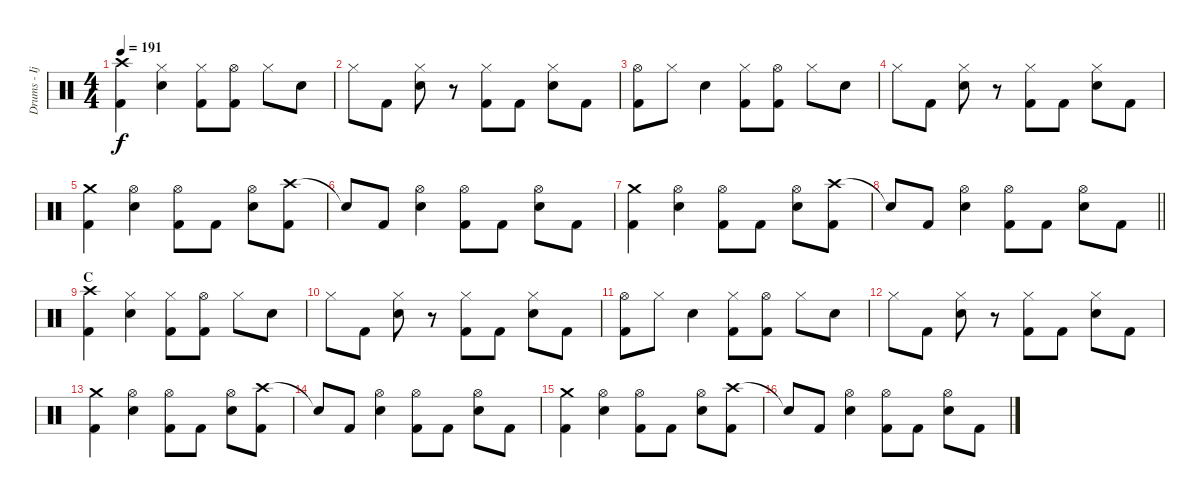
\track ("Drums - Ijichi" "Drums - Ij") {instrument percussion}
\staff
\articulation defaults
\ts (4 4)
\tempo 191
\clef neutral
\ks c
("Crash high (hit)" "Kick (hit) 2").4{dy f} ("Hi-Hat (closed)" "Electric Snare (hit)").4 ("Hi-Hat (closed)" "Kick (hit) 2").8 ("Hi-Hat (open)" "Kick (hit) 2").8 "Hi-Hat (closed)".8 "Electric Snare (hit)".8 |
"Hi-Hat (closed)".8 "Kick (hit) 2".8 ("Hi-Hat (closed)" "Electric Snare (hit)").8 r.8 ("Hi-Hat (closed)" "Kick (hit) 2").8 "Kick (hit) 2".8 ("Hi-Hat (closed)" "Electric Snare (hit)").8 "Kick (hit) 2".8 |
("Hi-Hat (open)" "Kick (hit) 2").8 "Hi-Hat (closed)".8 "Electric Snare (hit)".4 ("Hi-Hat (closed)" "Kick (hit) 2").8 ("Hi-Hat (open)" "Kick (hit) 2").8 "Hi-Hat (closed)".8 "Electric Snare (hit)".8 |
"Hi-Hat (closed)".8 "Kick (hit) 2".8 ("Hi-Hat (closed)" "Electric Snare (hit)").8 r.8 ("Hi-Hat (closed)" "Kick (hit) 2").8 "Kick (hit) 2".8 ("Hi-Hat (closed)" "Electric Snare (hit)").8 "Kick (hit) 2".8 |
("Crash medium (hit)" "Kick (hit) 2").4 ("Hi-Hat (open)" "Electric Snare (hit)").4 ("Hi-Hat (open)" "Kick (hit) 2").8 "Kick (hit) 2".8 ("Hi-Hat (open)" "Electric Snare (hit)").8 ("Crash high (hit)" "Kick (hit) 2").8 |
"Snare (hit)"{t}.8 "Kick (hit) 2".8 ("Hi-Hat (open)" "Electric Snare (hit)").4 ("Hi-Hat (open)" "Kick (hit) 2").8 "Kick (hit) 2".8 ("Hi-Hat (open)" "Electric Snare (hit)").8 "Kick (hit) 2".8 |
("Crash medium (hit)" "Kick (hit) 2").4 ("Hi-Hat (open)" "Electric Snare (hit)").4 ("Hi-Hat (open)" "Kick (hit) 2").8 "Kick (hit) 2".8 ("Hi-Hat (open)" "Electric Snare (hit)").8 ("Crash high (hit)" "Kick (hit) 2").8 |
\barLineRight lightlight "Snare (hit)"{t}.8 "Kick (hit) 2".8
("Hi-Hat (open)" "Electric Snare (hit)").4 ("Hi-Hat (open)" "Kick (hit) 2").8 "Kick (hit) 2".8 ("Hi-Hat (open)" "Electric Snare (hit)").8 "Kick (hit) 2".8 |
\section ("" "C")
("Crash high (hit)" "Kick (hit) 2").4 ("Hi-Hat (closed)" "Electric Snare (hit)").4 ("Hi-Hat (closed)" "Kick (hit) 2").8 ("Hi-Hat (open)" "Kick (hit) 2").8 "Hi-Hat (closed)".8 "Electric Snare (hit)".8 |
"Hi-Hat (closed)".8 "Kick (hit) 2".8 ("Hi-Hat (closed)" "Electric Snare (hit)").8 r.8 ("Hi-Hat (closed)" "Kick (hit) 2").8 "Kick (hit) 2".8 ("Hi-Hat (closed)" "Electric Snare (hit)").8 "Kick (hit) 2".8 |
("Hi-Hat (open)" "Kick (hit) 2").8 "Hi-Hat (closed)".8 "Electric Snare (hit)".4 ("Hi-Hat (closed)" "Kick (hit) 2").8 ("Hi-Hat (open)" "Kick (hit) 2").8 "Hi-Hat (closed)".8 "Electric Snare (hit)".8 |
"Hi-Hat (closed)".8 "Kick (hit) 2".8 ("Hi-Hat (closed)" "Electric Snare (hit)").8 r.8 ("Hi-Hat (closed)" "Kick (hit) 2").8 "Kick (hit) 2".8 ("Hi-Hat (closed)" "Electric Snare (hit)").8 "Kick (hit) 2".8 |
("Crash medium (hit)" "Kick (hit) 2").4 ("Hi-Hat (open)" "Electric Snare (hit)").4 ("Hi-Hat (open)" "Kick (hit) 2").8 "Kick (hit) 2".8 ("Hi-Hat (open)" "Electric Snare (hit)").8 ("Crash high (hit)" "Kick (hit) 2").8 |
"Snare (hit)"{t}.8 "Kick (hit) 2".8 ("Hi-Hat (open)" "Electric Snare (hit)").4 ("Hi-Hat (open)" "Kick (hit) 2").8 "Kick (hit) 2".8 ("Hi-Hat (open)" "Electric Snare (hit)").8 "Kick (hit) 2".8 |
("Crash medium (hit)" "Kick (hit) 2").4 ("Hi-Hat (open)" "Electric Snare (hit)").4 ("Hi-Hat (open)" "Kick (hit) 2").8 "Kick (hit) 2".8 ("Hi-Hat (open)" "Electric Snare (hit)").8 ("Crash high (hit)" "Kick (hit) 2").8 |
"Snare (hit)"{t}.8 "Kick (hit) 2".8 ("Hi-Hat (open)" "Electric Snare (hit)").4 ("Hi-Hat (open)" "Kick (hit) 2").8 "Kick (hit) 2".8 ("Hi-Hat (open)" "Electric Snare (hit)").8 "Kick (hit) 2".8
